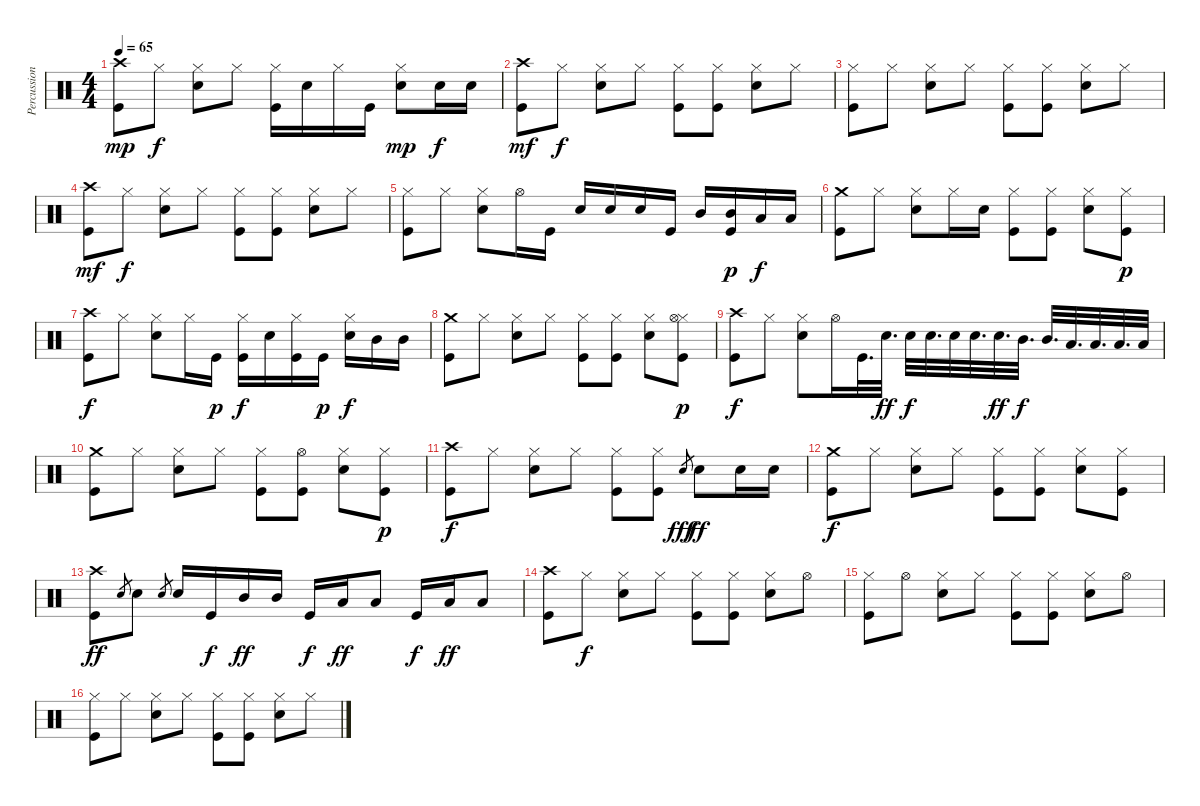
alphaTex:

\track ("Percussion" "Percussion") {instrument percussion}
\staff {score}
\articulation defaults
\ts (4 4)
\tempo 65
\clef neutral
\ks c
("Crash high (hit)" "Kick (hit)").8{dy mp} "Hi-Hat (closed)".8{dy f} ("Hi-Hat (closed)" "Electric Snare (hit)").8 "Hi-Hat (closed)".8 ("Hi-Hat (closed)" "Kick (hit)").16 "Electric Snare (hit)".16 "Hi-Hat (closed)".16 "Kick (hit)".16 ("Hi-Hat (closed)" "Electric Snare (hit)").8{dy mp} "Electric Snare (hit)".16{dy f} "Electric Snare (hit)".16 |
("Crash high (hit)" "Kick (hit)").8{dy mf} "Hi-Hat (closed)".8{dy f} ("Hi-Hat (closed)" "Electric Snare (hit)").8 "Hi-Hat (closed)".8 ("Hi-Hat (closed)" "Kick (hit)").8 ("Hi-Hat (closed)" "Kick (hit)").8 ("Hi-Hat (closed)" "Electric Snare (hit)").8 "Hi-Hat (closed)".8 |
("Hi-Hat (closed)" "Kick (hit)").8 "Hi-Hat (closed)".8 ("Hi-Hat (closed)" "Electric Snare (hit)").8 "Hi-Hat (closed)".8 ("Hi-Hat (closed)" "Kick (hit)").8 ("Hi-Hat (closed)" "Kick (hit)").8 ("Hi-Hat (closed)" "Electric Snare (hit)").8 "Hi-Hat (closed)".8 |
("Crash high (hit)" "Kick (hit)").8{dy mf} "Hi-Hat (closed)".8{dy f} ("Hi-Hat (closed)" "Electric Snare (hit)").8 "Hi-Hat (closed)".8 ("Hi-Hat (closed)" "Kick (hit)").8 ("Hi-Hat (closed)" "Kick (hit)").8 ("Hi-Hat (closed)" "Electric Snare (hit)").8 "Hi-Hat (closed)".8 |
("Hi-Hat (closed)" "Kick (hit)").8 "Hi-Hat (closed)".8 ("Hi-Hat (closed)" "Electric Snare (hit)").8 "Hi-Hat (open)".16 "Kick (hit)".16 "Electric Snare (hit)".16 "Electric Snare (hit)".16 "Electric Snare (hit)".16 "Kick (hit)".16 "Mid Tom (hit)".16 ("Mid Tom (hit)" "Kick (hit)").16{dy p} "Low Tom (hit)".16{dy f} "Low Tom (hit)".16 |
("Crash medium (hit)" "Kick (hit)").8 "Hi-Hat (closed)".8 ("Hi-Hat (closed)" "Electric Snare (hit)").8 "Hi-Hat (closed)".16 "Electric Snare (hit)".16 ("Hi-Hat (closed)" "Kick (hit)").8 ("Hi-Hat (closed)" "Kick (hit)").8 ("Hi-Hat (closed)" "Electric Snare (hit)").8 ("Hi-Hat (closed)" "Kick (hit)").8{dy p} |
("Crash high (hit)" "Kick (hit)").8{dy f} "Hi-Hat (closed)".8 ("Hi-Hat (closed)" "Electric Snare (hit)").8 "Hi-Hat (closed)".16 "Kick (hit)".16{dy p} ("Hi-Hat (closed)" "Kick (hit)").16{dy f} "Electric Snare (hit)".16 ("Hi-Hat (closed)" "Kick (hit)").16 "Kick (hit)".16{dy p} ("Hi-Hat (closed)" "Electric Snare (hit)").16{dy f} "Mid Tom (hit)".16 "Mid Tom (hit)".16 |
("Crash medium (hit)" "Kick (hit)").8 "Hi-Hat (closed)".8 ("Hi-Hat (closed)" "Electric Snare (hit)").8 "Hi-Hat (closed)".8 ("Hi-Hat (closed)" "Kick (hit)").8 ("Hi-Hat (closed)" "Kick (hit)").8 ("Hi-Hat (closed)" "Electric Snare (hit)").8 ("Hi-Hat (closed)" "Hi-Hat (open)" "Kick (hit)").8{dy p} |
("Crash high (hit)" "Kick (hit)").8{dy f} "Hi-Hat (closed)".8 ("Hi-Hat (closed)" "Electric Snare (hit)").8 "Hi-Hat (open)".16 "Kick (hit)".32{d} "Electric Snare (hit)".32{d dy ff} "Electric Snare (hit)".32{dy f} "Electric Snare (hit)".32{d} "Electric Snare (hit)".32 "Electric Snare (hit)".32{d} "Electric Snare (hit)".32{d dy ff} "Mid Tom (hit)".32{d dy f} "Mid Tom (hit)".32{d} "Low Tom (hit)".32{d} "Low Tom (hit)".32{d} "Low Floor Tom (hit)".32{d} "Low Floor Tom (hit)".32 |
("Crash medium (hit)" "Kick (hit)").8 "Hi-Hat (closed)".8 ("Hi-Hat (closed)" "Electric Snare (hit)").8 "Hi-Hat (closed)".8 ("Hi-Hat (closed)" "Kick (hit)").8 ("Hi-Hat (open)" "Kick (hit)").8 ("Hi-Hat (closed)" "Electric Snare (hit)").8 ("Hi-Hat (closed)" "Kick (hit)").8{dy p} |
("Crash high (hit)" "Kick (hit)").8{dy f} "Hi-Hat (closed)".8 ("Hi-Hat (closed)" "Electric Snare (hit)").8 "Hi-Hat (closed)".8 ("Hi-Hat (closed)" "Kick (hit)").8 ("Hi-Hat (closed)" "Kick (hit)").8 "Electric Snare (hit)".8{gr dy fff} "Electric Snare (hit)".8{dy ff} "Electric Snare (hit)".16 "Electric Snare (hit)".16 |
("Crash medium (hit)" "Kick (hit)").8{dy f} "Hi-Hat (closed)".8 ("Hi-Hat (closed)" "Electric Snare (hit)").8 "Hi-Hat (closed)".8 ("Hi-Hat (closed)" "Kick (hit)").8 ("Hi-Hat (closed)" "Kick (hit)").8 ("Hi-Hat (closed)" "Electric Snare (hit)").8 ("Hi-Hat (closed)" "Kick (hit)").8 |
("Crash high (hit)" "Kick (hit)").8{dy ff} "Electric Snare (hit)".8{gr} "Electric Snare (hit)".8 "Electric Snare (hit)".8{gr} "Electric Snare (hit)".16 "Kick (hit)".16{dy f} "Mid Tom (hit)".16{dy ff} "Mid Tom (hit)".16 "Kick (hit)".16{dy f} "Low Tom (hit)".16{dy ff} "Low Tom (hit)".8 "Kick (hit)".16{dy f} "Low Floor Tom (hit)".16{dy ff} "Low Floor Tom (hit)".8 |
("Crash high (hit)" "Kick (hit)").8 "Hi-Hat (closed)".8{dy f} ("Hi-Hat (closed)" "Electric Snare (hit)").8 "Hi-Hat (closed)".8 ("Hi-Hat (closed)" "Kick (hit)").8 ("Hi-Hat (closed)" "Kick (hit)").8 ("Hi-Hat (closed)" "Electric Snare (hit)").8 "Hi-Hat (open)".8 |
("Hi-Hat (closed)" "Kick (hit)").8 "Hi-Hat (open)".8 ("Hi-Hat (closed)" "Electric Snare (hit)").8 "Hi-Hat (closed)".8 ("Hi-Hat (closed)" "Kick (hit)").8 ("Hi-Hat (closed)" "Kick (hit)").8 ("Hi-Hat (closed)" "Electric Snare (hit)").8 "Hi-Hat (open)".8 |
("Hi-Hat (closed)" "Kick (hit)").8 "Hi-Hat (closed)".8 ("Hi-Hat (closed)" "Electric Snare (hit)").8 "Hi-Hat (closed)".8 ("Hi-Hat (closed)" "Kick (hit)").8 ("Hi-Hat (closed)" "Kick (hit)").8 ("Hi-Hat (closed)" "Electric Snare (hit)").8 "Hi-Hat (closed)".8
